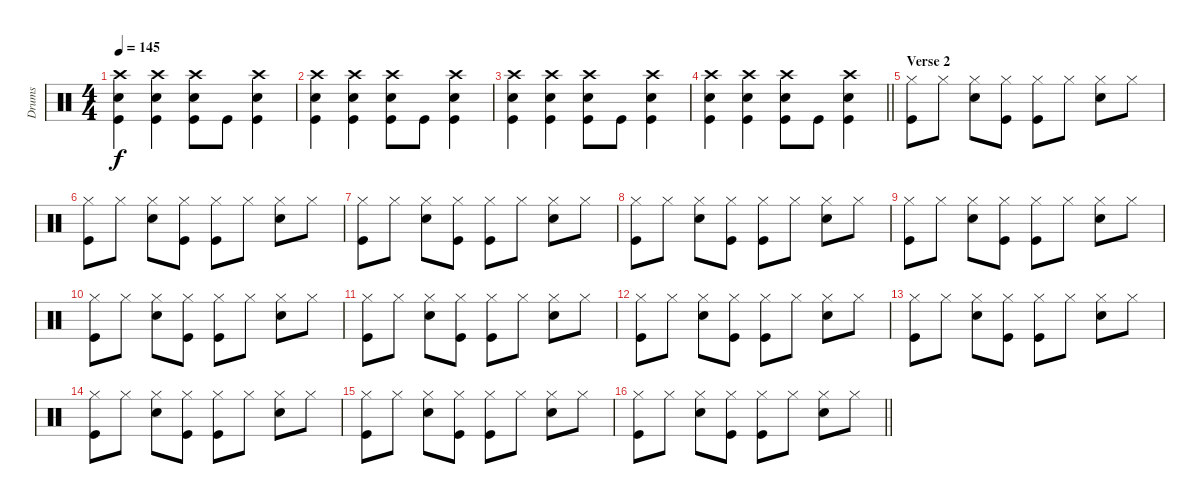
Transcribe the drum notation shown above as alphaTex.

\track ("Drums" "Drums") {instrument percussion}
\staff {score}
\articulation defaults
\ts (4 4)
\tempo 145
\clef neutral
\ks c
("Crash high (hit)" "Snare (hit) 2" "Kick (hit)").4{dy f} ("Crash high (hit)" "Snare (hit) 2" "Kick (hit)").4 ("Crash high (hit)" "Snare (hit) 2" "Kick (hit)").8 "Kick (hit)".8 ("Crash high (hit)" "Snare (hit) 2" "Kick (hit)").4 |
("Crash high (hit)" "Snare (hit) 2" "Kick (hit)").4 ("Crash high (hit)" "Snare (hit) 2" "Kick (hit)").4 ("Crash high (hit)" "Snare (hit) 2" "Kick (hit)").8 "Kick (hit)".8 ("Crash high (hit)" "Snare (hit) 2" "Kick (hit)").4 |
("Crash high (hit)" "Snare (hit) 2" "Kick (hit)").4 ("Crash high (hit)" "Snare (hit) 2" "Kick (hit)").4 ("Crash high (hit)" "Snare (hit) 2" "Kick (hit)").8 "Kick (hit)".8 ("Crash high (hit)" "Snare (hit) 2" "Kick (hit)").4 |
\barLineRight lightlight
("Crash high (hit)" "Snare (hit) 2" "Kick (hit)").4 ("Crash high (hit)" "Snare (hit) 2" "Kick (hit)").4 ("Crash high (hit)" "Snare (hit) 2" "Kick (hit)").8 "Kick (hit)".8 ("Crash high (hit)" "Snare (hit) 2" "Kick (hit)").4 |
\section ("" "Verse 2")
("Hi-Hat (closed)" "Kick (hit)").8 "Hi-Hat (closed)".8 ("Hi-Hat (closed)" "Snare (hit) 2").8 ("Hi-Hat (closed)" "Kick (hit)").8 ("Hi-Hat (closed)" "Kick (hit)").8 "Hi-Hat (closed)".8 ("Hi-Hat (closed)" "Snare (hit) 2").8 "Hi-Hat (closed)".8 |
("Hi-Hat (closed)" "Kick (hit)").8 "Hi-Hat (closed)".8 ("Hi-Hat (closed)" "Snare (hit) 2").8 ("Hi-Hat (closed)" "Kick (hit)").8 ("Hi-Hat (closed)" "Kick (hit)").8 "Hi-Hat (closed)".8 ("Hi-Hat (closed)" "Snare (hit) 2").8 "Hi-Hat (closed)".8 |
("Hi-Hat (closed)" "Kick (hit)").8 "Hi-Hat (closed)".8 ("Hi-Hat (closed)" "Snare (hit) 2").8 ("Hi-Hat (closed)" "Kick (hit)").8 ("Hi-Hat (closed)" "Kick (hit)").8 "Hi-Hat (closed)".8 ("Hi-Hat (closed)" "Snare (hit) 2").8 "Hi-Hat (closed)".8 |
("Hi-Hat (closed)" "Kick (hit)").8 "Hi-Hat (closed)".8 ("Hi-Hat (closed)" "Snare (hit) 2").8 ("Hi-Hat (closed)" "Kick (hit)").8 ("Hi-Hat (closed)" "Kick (hit)").8 "Hi-Hat (closed)".8 ("Hi-Hat (closed)" "Snare (hit) 2").8 "Hi-Hat (closed)".8 |
("Hi-Hat (closed)" "Kick (hit)").8 "Hi-Hat (closed)".8 ("Hi-Hat (closed)" "Snare (hit) 2").8 ("Hi-Hat (closed)" "Kick (hit)").8 ("Hi-Hat (closed)" "Kick (hit)").8 "Hi-Hat (closed)".8 ("Hi-Hat (closed)" "Snare (hit) 2").8 "Hi-Hat (closed)".8 |
("Hi-Hat (closed)" "Kick (hit)").8 "Hi-Hat (closed)".8 ("Hi-Hat (closed)" "Snare (hit) 2").8 ("Hi-Hat (closed)" "Kick (hit)").8 ("Hi-Hat (closed)" "Kick (hit)").8 "Hi-Hat (closed)".8 ("Hi-Hat (closed)" "Snare (hit) 2").8 "Hi-Hat (closed)".8 |
("Hi-Hat (closed)" "Kick (hit)").8 "Hi-Hat (closed)".8 ("Hi-Hat (closed)" "Snare (hit) 2").8 ("Hi-Hat (closed)" "Kick (hit)").8 ("Hi-Hat (closed)" "Kick (hit)").8 "Hi-Hat (closed)".8 ("Hi-Hat (closed)" "Snare (hit) 2").8 "Hi-Hat (closed)".8 |
("Hi-Hat (closed)" "Kick (hit)").8 "Hi-Hat (closed)".8 ("Hi-Hat (closed)" "Snare (hit) 2").8 ("Hi-Hat (closed)" "Kick (hit)").8 ("Hi-Hat (closed)" "Kick (hit)").8 "Hi-Hat (closed)".8 ("Hi-Hat (closed)" "Snare (hit) 2").8 "Hi-Hat (closed)".8 |
("Hi-Hat (closed)" "Kick (hit)").8 "Hi-Hat (closed)".8 ("Hi-Hat (closed)" "Snare (hit) 2").8 ("Hi-Hat (closed)" "Kick (hit)").8 ("Hi-Hat (closed)" "Kick (hit)").8 "Hi-Hat (closed)".8 ("Hi-Hat (closed)" "Snare (hit) 2").8 "Hi-Hat (closed)".8 |
("Hi-Hat (closed)" "Kick (hit)").8 "Hi-Hat (closed)".8 ("Hi-Hat (closed)" "Snare (hit) 2").8 ("Hi-Hat (closed)" "Kick (hit)").8 ("Hi-Hat (closed)" "Kick (hit)").8 "Hi-Hat (closed)".8 ("Hi-Hat (closed)" "Snare (hit) 2").8 "Hi-Hat (closed)".8 |
("Hi-Hat (closed)" "Kick (hit)").8 "Hi-Hat (closed)".8 ("Hi-Hat (closed)" "Snare (hit) 2").8 ("Hi-Hat (closed)" "Kick (hit)").8 ("Hi-Hat (closed)" "Kick (hit)").8 "Hi-Hat (closed)".8 ("Hi-Hat (closed)" "Snare (hit) 2").8 "Hi-Hat (closed)".8 |
\barLineRight lightlight
("Hi-Hat (closed)" "Kick (hit)").8 "Hi-Hat (closed)".8 ("Hi-Hat (closed)" "Snare (hit) 2").8 ("Hi-Hat (closed)" "Kick (hit)").8 ("Hi-Hat (closed)" "Kick (hit)").8 "Hi-Hat (closed)".8 ("Hi-Hat (closed)" "Snare (hit) 2").8 "Hi-Hat (closed)".8
